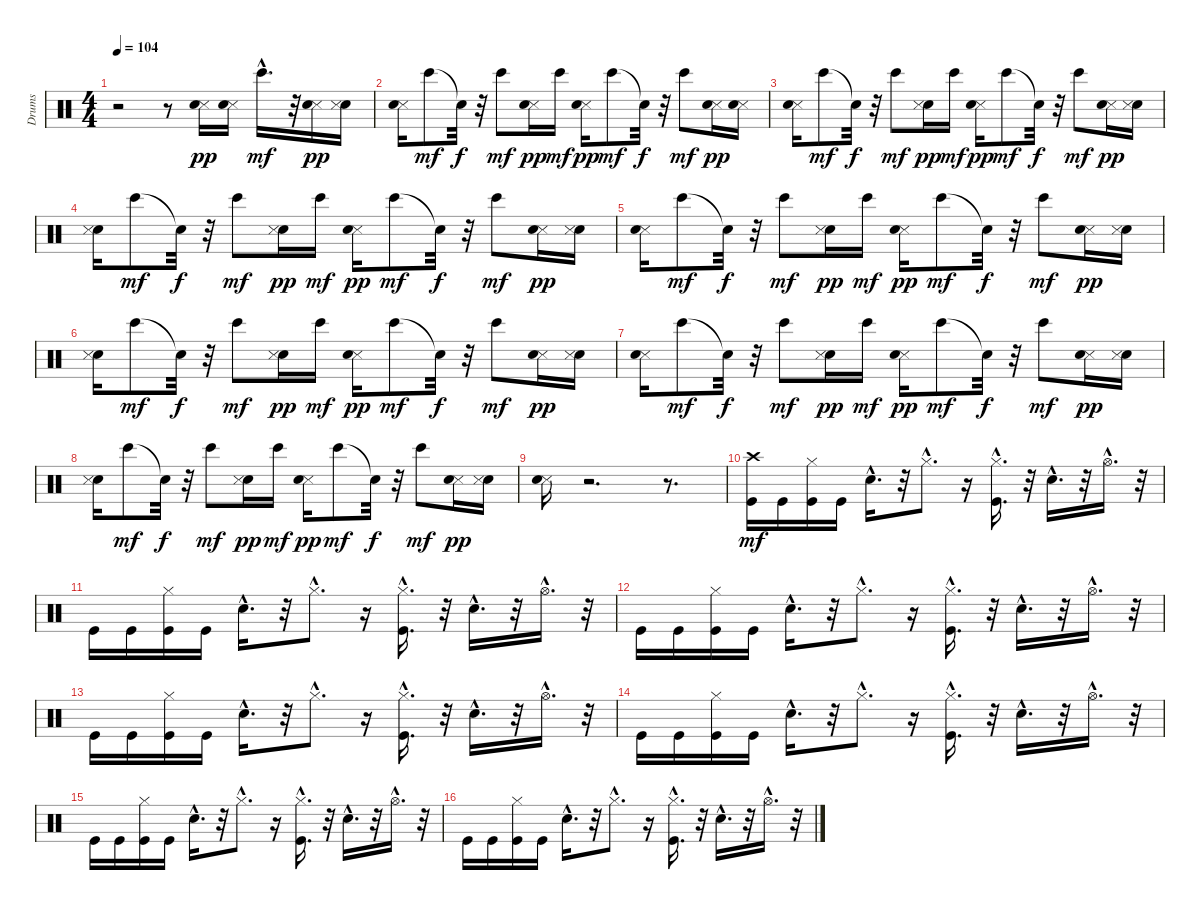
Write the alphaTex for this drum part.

\track ("Drums" "Drums") {instrument percussion}
\staff {score}
\articulation defaults
\ts (4 4)
\tempo 104
\clef neutral
\ks c
r.2{dy pp} r.8 ("Metronome (hit)" "Snare (hit)").16 ("Metronome (hit)" "Snare (hit)").16 "Bongo High (hit)"{hac}.16{d dy mf} r.32 ("Metronome (hit)" "Snare (hit)").16{dy pp} ("Snare (hit)" "Metronome (hit)").16 |
("Metronome (hit)" "Snare (hit)").16 "Bongo High (hit)".8{dy mf} "Snare (hit)"{t}.32{dy f} r.32 "Bongo High (hit)".8{dy mf} ("Metronome (hit)" "Snare (hit)").16{dy pp} "Bongo High (hit)".16{dy mf} ("Metronome (hit)" "Snare (hit)").16{dy pp} "Bongo High (hit)".8{dy mf} "Snare (hit)"{t}.32{dy f} r.32 "Bongo High (hit)".8{dy mf} ("Metronome (hit)" "Snare (hit)").16{dy pp} ("Metronome (hit)" "Snare (hit)").16 |
("Metronome (hit)" "Snare (hit)").16 "Bongo High (hit)".8{dy mf} "Snare (hit)"{t}.32{dy f} r.32 "Bongo High (hit)".8{dy mf} ("Snare (hit)" "Metronome (hit)").16{dy pp} "Bongo High (hit)".16{dy mf} ("Metronome (hit)" "Snare (hit)").16{dy pp} "Bongo High (hit)".8{dy mf} "Snare (hit)"{t}.32{dy f} r.32 "Bongo High (hit)".8{dy mf} ("Metronome (hit)" "Snare (hit)").16{dy pp} ("Snare (hit)" "Metronome (hit)").16 |
("Snare (hit)" "Metronome (hit)").16 "Bongo High (hit)".8{dy mf} "Snare (hit)"{t}.32{dy f} r.32 "Bongo High (hit)".8{dy mf} ("Snare (hit)" "Metronome (hit)").16{dy pp} "Bongo High (hit)".16{dy mf} ("Metronome (hit)" "Snare (hit)").16{dy pp} "Bongo High (hit)".8{dy mf} "Snare (hit)"{t}.32{dy f} r.32 "Bongo High (hit)".8{dy mf} ("Metronome (hit)" "Snare (hit)").16{dy pp} ("Snare (hit)" "Metronome (hit)").16 |
("Metronome (hit)" "Snare (hit)").16 "Bongo High (hit)".8{dy mf} "Snare (hit)"{t}.32{dy f} r.32 "Bongo High (hit)".8{dy mf} ("Snare (hit)" "Metronome (hit)").16{dy pp} "Bongo High (hit)".16{dy mf} ("Metronome (hit)" "Snare (hit)").16{dy pp} "Bongo High (hit)".8{dy mf} "Snare (hit)"{t}.32{dy f} r.32 "Bongo High (hit)".8{dy mf} ("Metronome (hit)" "Snare (hit)").16{dy pp} ("Snare (hit)" "Metronome (hit)").16 |
("Snare (hit)" "Metronome (hit)").16 "Bongo High (hit)".8{dy mf} "Snare (hit)"{t}.32{dy f} r.32 "Bongo High (hit)".8{dy mf} ("Snare (hit)" "Metronome (hit)").16{dy pp} "Bongo High (hit)".16{dy mf} ("Metronome (hit)" "Snare (hit)").16{dy pp} "Bongo High (hit)".8{dy mf} "Snare (hit)"{t}.32{dy f} r.32 "Bongo High (hit)".8{dy mf} ("Metronome (hit)" "Snare (hit)").16{dy pp} ("Snare (hit)" "Metronome (hit)").16 |
("Metronome (hit)" "Snare (hit)").16 "Bongo High (hit)".8{dy mf} "Snare (hit)"{t}.32{dy f} r.32 "Bongo High (hit)".8{dy mf} ("Snare (hit)" "Metronome (hit)").16{dy pp} "Bongo High (hit)".16{dy mf} ("Metronome (hit)" "Snare (hit)").16{dy pp} "Bongo High (hit)".8{dy mf} "Snare (hit)"{t}.32{dy f} r.32 "Bongo High (hit)".8{dy mf} ("Metronome (hit)" "Snare (hit)").16{dy pp} ("Snare (hit)" "Metronome (hit)").16 |
("Snare (hit)" "Metronome (hit)").16 "Bongo High (hit)".8{dy mf} "Snare (hit)"{t}.32{dy f} r.32 "Bongo High (hit)".8{dy mf} ("Snare (hit)" "Metronome (hit)").16{dy pp} "Bongo High (hit)".16{dy mf} ("Metronome (hit)" "Snare (hit)").16{dy pp} "Bongo High (hit)".8{dy mf} "Snare (hit)"{t}.32{dy f} r.32 "Bongo High (hit)".8{dy mf} ("Metronome (hit)" "Snare (hit)").16{dy pp} ("Snare (hit)" "Metronome (hit)").16 |
("Metronome (hit)" "Snare (hit)").16 r.2{d} r.8{d} |
("Kick (hit)" "Crash high (hit)").16{dy mf} "Kick (hit)".16 ("Hi-Hat (closed)" "Kick (hit)").16 "Kick (hit)".16 "Electric Snare (hit)"{hac}.16{d} r.32 "Hi-Hat (closed)"{hac}.8{d} r.16 ("Kick (hit)"{hac} "Hi-Hat (closed)"{hac}).16{d} r.32 "Electric Snare (hit)"{hac}.16{d} r.32 "Hi-Hat (open)"{hac}.16{d} r.32 |
"Kick (hit)".16 "Kick (hit)".16 ("Kick (hit)" "Hi-Hat (closed)").16 "Kick (hit)".16 "Electric Snare (hit)"{hac}.16{d} r.32 "Hi-Hat (closed)"{hac}.8{d} r.16 ("Kick (hit)"{hac} "Hi-Hat (closed)"{hac}).16{d} r.32 "Electric Snare (hit)"{hac}.16{d} r.32 "Hi-Hat (open)"{hac}.16{d} r.32 |
"Kick (hit)".16 "Kick (hit)".16 ("Kick (hit)" "Hi-Hat (closed)").16 "Kick (hit)".16 "Electric Snare (hit)"{hac}.16{d} r.32 "Hi-Hat (closed)"{hac}.8{d} r.16 ("Kick (hit)"{hac} "Hi-Hat (closed)"{hac}).16{d} r.32 "Electric Snare (hit)"{hac}.16{d} r.32 "Hi-Hat (open)"{hac}.16{d} r.32 |
"Kick (hit)".16 "Kick (hit)".16 ("Hi-Hat (closed)" "Kick (hit)").16 "Kick (hit)".16 "Electric Snare (hit)"{hac}.16{d} r.32 "Hi-Hat (closed)"{hac}.8{d} r.16 ("Kick (hit)"{hac} "Hi-Hat (closed)"{hac}).16{d} r.32 "Electric Snare (hit)"{hac}.16{d} r.32 "Hi-Hat (open)"{hac}.16{d} r.32 |
"Kick (hit)".16 "Kick (hit)".16 ("Hi-Hat (closed)" "Kick (hit)").16 "Kick (hit)".16 "Electric Snare (hit)"{hac}.16{d} r.32 "Hi-Hat (closed)"{hac}.8{d} r.16 ("Kick (hit)"{hac} "Hi-Hat (closed)"{hac}).16{d} r.32 "Electric Snare (hit)"{hac}.16{d} r.32 "Hi-Hat (open)"{hac}.16{d} r.32 |
"Kick (hit)".16 "Kick (hit)".16 ("Kick (hit)" "Hi-Hat (closed)").16 "Kick (hit)".16 "Electric Snare (hit)"{hac}.16{d} r.32 "Hi-Hat (closed)"{hac}.8{d} r.16 ("Kick (hit)"{hac} "Hi-Hat (closed)"{hac}).16{d} r.32 "Electric Snare (hit)"{hac}.16{d} r.32 "Hi-Hat (open)"{hac}.16{d} r.32 |
"Kick (hit)".16 "Kick (hit)".16 ("Hi-Hat (closed)" "Kick (hit)").16 "Kick (hit)".16 "Electric Snare (hit)"{hac}.16{d} r.32 "Hi-Hat (closed)"{hac}.8{d} r.16 ("Hi-Hat (closed)"{hac} "Kick (hit)"{hac}).16{d} r.32 "Electric Snare (hit)"{hac}.16{d} r.32 "Hi-Hat (open)"{hac}.16{d} r.32
